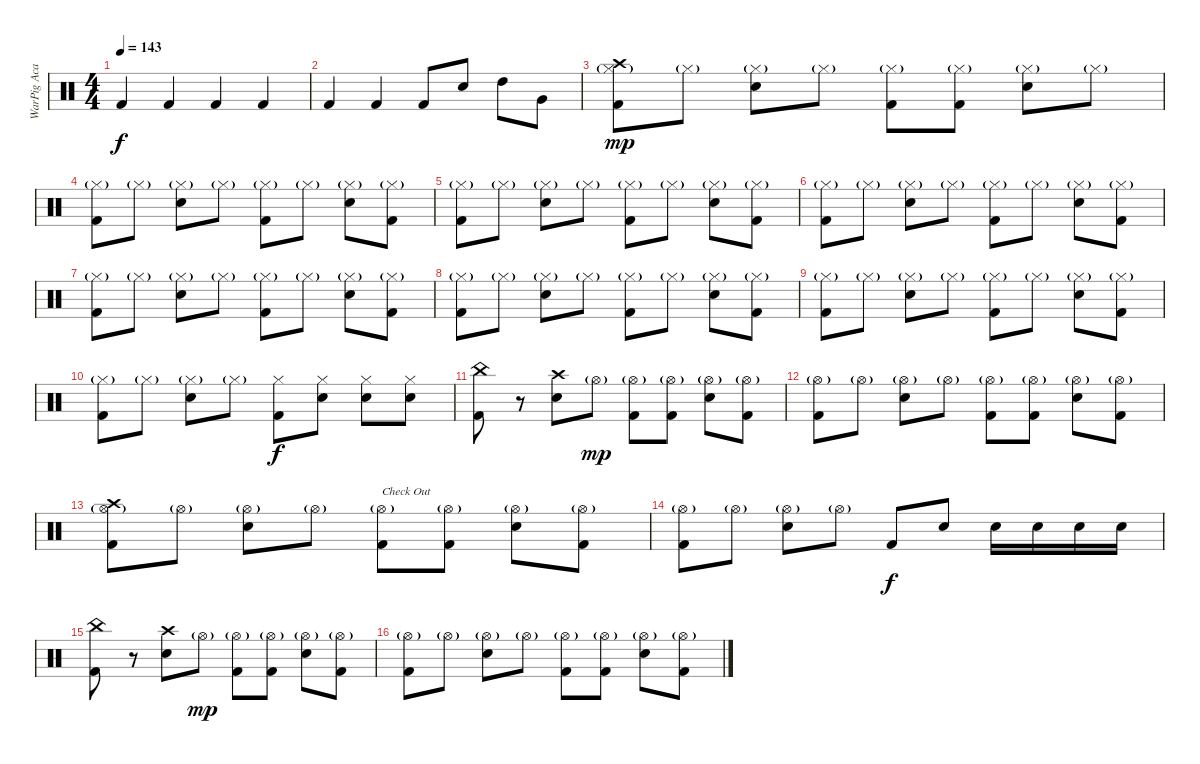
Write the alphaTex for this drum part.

\track ("WarPig Acapulco" "WarPig Aca") {instrument percussion}
\staff {score}
\articulation defaults
\ts (4 4)
\tempo 143
\clef neutral
\ks c "Kick (hit) 2".4{dy f} "Kick (hit) 2".4 "Kick (hit) 2".4 "Kick (hit) 2".4
|
"Kick (hit) 2".4 "Kick (hit) 2".4 "Kick (hit) 2".8 "Electric Snare (hit)".8 "High Tom (hit)".8 "Very Low Tom (hit)".8 |
("Kick (hit) 2" "Crash high (hit)" "Hi-Hat (closed)"{g}).8{dy mp} "Hi-Hat (closed)"{g}.8 ("Electric Snare (hit)" "Hi-Hat (closed)"{g}).8 "Hi-Hat (closed)"{g}.8 ("Kick (hit) 2" "Hi-Hat (closed)"{g}).8 ("Kick (hit) 2" "Hi-Hat (closed)"{g}).8 ("Electric Snare (hit)" "Hi-Hat (closed)"{g}).8 "Hi-Hat (closed)"{g}.8 |
("Kick (hit) 2" "Hi-Hat (closed)"{g}).8 "Hi-Hat (closed)"{g}.8 ("Electric Snare (hit)" "Hi-Hat (closed)"{g}).8 "Hi-Hat (closed)"{g}.8 ("Kick (hit) 2" "Hi-Hat (closed)"{g}).8 "Hi-Hat (closed)"{g}.8 ("Electric Snare (hit)" "Hi-Hat (closed)"{g}).8 ("Kick (hit) 2" "Hi-Hat (closed)"{g}).8 |
("Kick (hit) 2" "Hi-Hat (closed)"{g}).8 "Hi-Hat (closed)"{g}.8 ("Electric Snare (hit)" "Hi-Hat (closed)"{g}).8 "Hi-Hat (closed)"{g}.8 ("Kick (hit) 2" "Hi-Hat (closed)"{g}).8 "Hi-Hat (closed)"{g}.8 ("Electric Snare (hit)" "Hi-Hat (closed)"{g}).8 ("Kick (hit) 2" "Hi-Hat (closed)"{g}).8 |
("Kick (hit) 2" "Hi-Hat (closed)"{g}).8 "Hi-Hat (closed)"{g}.8 ("Electric Snare (hit)" "Hi-Hat (closed)"{g}).8 "Hi-Hat (closed)"{g}.8 ("Kick (hit) 2" "Hi-Hat (closed)"{g}).8 "Hi-Hat (closed)"{g}.8 ("Electric Snare (hit)" "Hi-Hat (closed)"{g}).8 ("Kick (hit) 2" "Hi-Hat (closed)"{g}).8 |
("Kick (hit) 2" "Hi-Hat (closed)"{g}).8 "Hi-Hat (closed)"{g}.8 ("Electric Snare (hit)" "Hi-Hat (closed)"{g}).8 "Hi-Hat (closed)"{g}.8 ("Kick (hit) 2" "Hi-Hat (closed)"{g}).8 "Hi-Hat (closed)"{g}.8 ("Electric Snare (hit)" "Hi-Hat (closed)"{g}).8 ("Kick (hit) 2" "Hi-Hat (closed)"{g}).8 |
("Kick (hit) 2" "Hi-Hat (closed)"{g}).8 "Hi-Hat (closed)"{g}.8 ("Electric Snare (hit)" "Hi-Hat (closed)"{g}).8 "Hi-Hat (closed)"{g}.8 ("Kick (hit) 2" "Hi-Hat (closed)"{g}).8 "Hi-Hat (closed)"{g}.8 ("Electric Snare (hit)" "Hi-Hat (closed)"{g}).8 ("Kick (hit) 2" "Hi-Hat (closed)"{g}).8 |
("Kick (hit) 2" "Hi-Hat (closed)"{g}).8 "Hi-Hat (closed)"{g}.8 ("Electric Snare (hit)" "Hi-Hat (closed)"{g}).8 "Hi-Hat (closed)"{g}.8 ("Kick (hit) 2" "Hi-Hat (closed)"{g}).8 "Hi-Hat (closed)"{g}.8 ("Electric Snare (hit)" "Hi-Hat (closed)"{g}).8 ("Kick (hit) 2" "Hi-Hat (closed)"{g}).8 |
("Kick (hit) 2" "Hi-Hat (closed)"{g}).8 "Hi-Hat (closed)"{g}.8 ("Electric Snare (hit)" "Hi-Hat (closed)"{g}).8 "Hi-Hat (closed)"{g}.8 ("Kick (hit) 2" "Hi-Hat (closed)").8{dy f} ("Electric Snare (hit)" "Hi-Hat (closed)").8 ("Electric Snare (hit)" "Hi-Hat (closed)").8 ("Electric Snare (hit)" "Hi-Hat (closed)").8 |
("Kick (hit) 2" "China (hit)").8 r.8 ("Electric Snare (hit)" "Crash high (hit)").8 "Hi-Hat (open)"{g}.8{dy mp} ("Kick (hit) 2" "Hi-Hat (open)"{g}).8 ("Kick (hit) 2" "Hi-Hat (open)"{g}).8 ("Electric Snare (hit)" "Hi-Hat (open)"{g}).8 ("Kick (hit) 2" "Hi-Hat (open)"{g}).8 |
("Kick (hit) 2" "Hi-Hat (open)"{g}).8 "Hi-Hat (open)"{g}.8 ("Electric Snare (hit)" "Hi-Hat (open)"{g}).8 "Hi-Hat (open)"{g}.8 ("Kick (hit) 2" "Hi-Hat (open)"{g}).8 ("Kick (hit) 2" "Hi-Hat (open)"{g}).8 ("Electric Snare (hit)" "Hi-Hat (open)"{g}).8 ("Kick (hit) 2" "Hi-Hat (open)"{g}).8 |
("Kick (hit) 2" "Crash high (hit)" "Hi-Hat (open)"{g}).8 "Hi-Hat (open)"{g}.8 ("Electric Snare (hit)" "Hi-Hat (open)"{g}).8 "Hi-Hat (open)"{g}.8 ("Kick (hit) 2" "Hi-Hat (open)"{g}).8{txt "Check Out"} ("Kick (hit) 2" "Hi-Hat (open)"{g}).8 ("Electric Snare (hit)" "Hi-Hat (open)"{g}).8 ("Kick (hit) 2" "Hi-Hat (open)"{g}).8 |
("Kick (hit) 2" "Hi-Hat (open)"{g}).8 "Hi-Hat (open)"{g}.8 ("Electric Snare (hit)" "Hi-Hat (open)"{g}).8 "Hi-Hat (open)"{g}.8 "Kick (hit) 2".8{dy f} "Electric Snare (hit)".8 "Electric Snare (hit)".16 "Electric Snare (hit)".16 "Electric Snare (hit)".16 "Electric Snare (hit)".16 |
("Kick (hit) 2" "China (hit)").8 r.8 ("Electric Snare (hit)" "Crash high (hit)").8 "Hi-Hat (open)"{g}.8{dy mp} ("Kick (hit) 2" "Hi-Hat (open)"{g}).8 ("Kick (hit) 2" "Hi-Hat (open)"{g}).8 ("Electric Snare (hit)" "Hi-Hat (open)"{g}).8 ("Kick (hit) 2" "Hi-Hat (open)"{g}).8 |
("Kick (hit) 2" "Hi-Hat (open)"{g}).8 "Hi-Hat (open)"{g}.8 ("Electric Snare (hit)" "Hi-Hat (open)"{g}).8 "Hi-Hat (open)"{g}.8 ("Kick (hit) 2" "Hi-Hat (open)"{g}).8 ("Kick (hit) 2" "Hi-Hat (open)"{g}).8 ("Electric Snare (hit)" "Hi-Hat (open)"{g}).8 ("Kick (hit) 2" "Hi-Hat (open)"{g}).8
